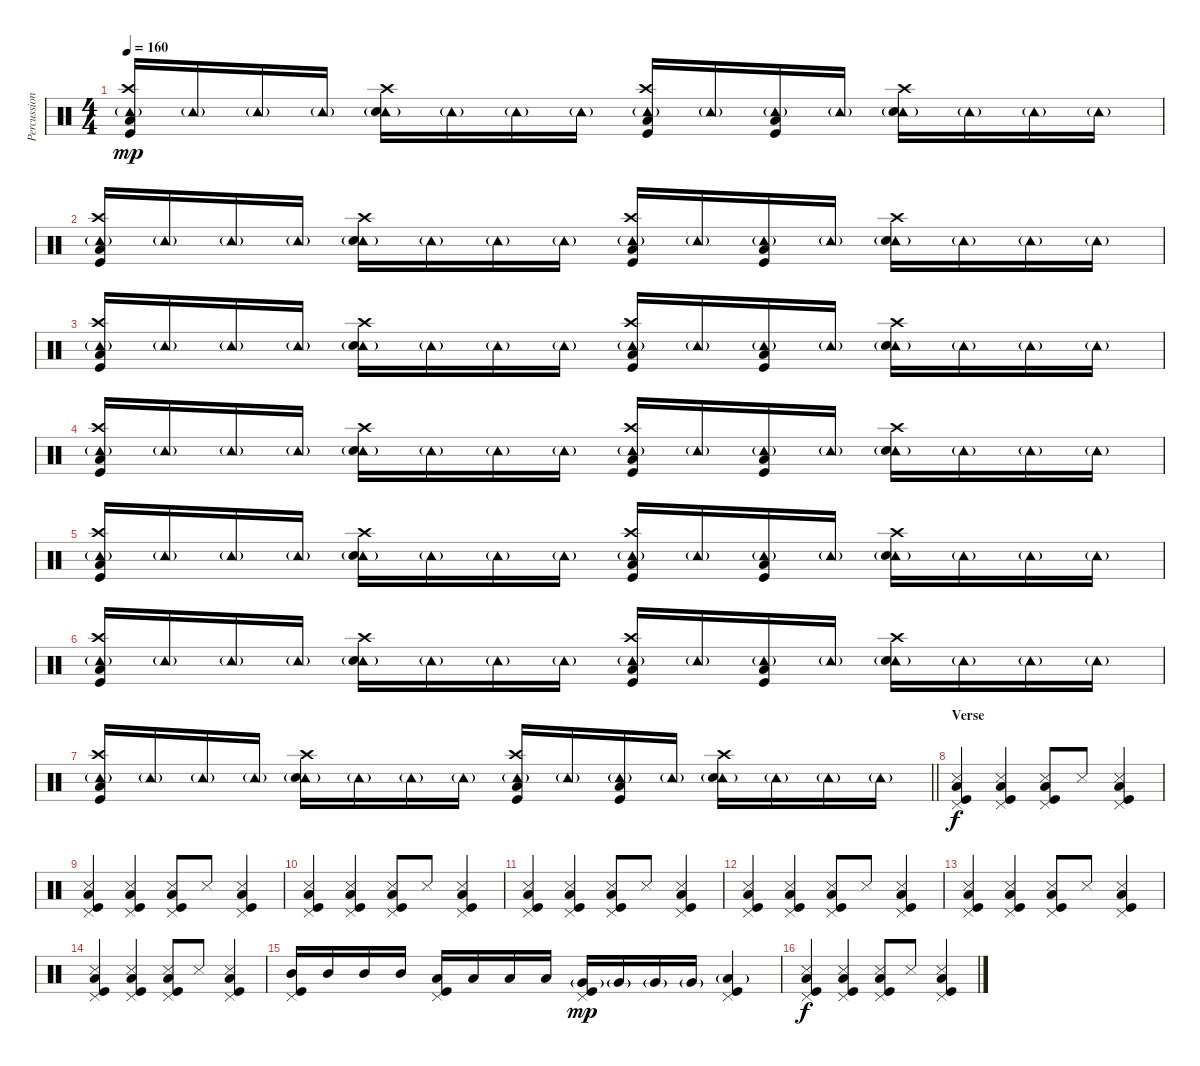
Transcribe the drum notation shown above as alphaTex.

\track ("Percussion" "Percussion") {instrument percussion}
\staff {score}
\articulation defaults
\ts (4 4)
\tempo 160
\clef neutral
\ks c
("Tambourine (hit)"{g} "Crash high (hit)" "Low Floor Tom (hit)" "Kick (hit)").16{dy mp} "Tambourine (hit)"{g}.16 "Tambourine (hit)"{g}.16 "Tambourine (hit)"{g}.16 ("Tambourine (hit)"{g} "Crash high (hit)" "Snare (hit) 2").16 "Tambourine (hit)"{g}.16 "Tambourine (hit)"{g}.16 "Tambourine (hit)"{g}.16 ("Tambourine (hit)"{g} "Crash high (hit)" "Low Floor Tom (hit)" "Kick (hit)").16 "Tambourine (hit)"{g}.16 ("Tambourine (hit)"{g} "Low Floor Tom (hit)" "Kick (hit)").16 "Tambourine (hit)"{g}.16 ("Tambourine (hit)"{g} "Crash high (hit)" "Snare (hit) 2").16 "Tambourine (hit)"{g}.16 "Tambourine (hit)"{g}.16 "Tambourine (hit)"{g}.16 |
("Tambourine (hit)"{g} "Crash high (hit)" "Low Floor Tom (hit)" "Kick (hit)").16 "Tambourine (hit)"{g}.16 "Tambourine (hit)"{g}.16 "Tambourine (hit)"{g}.16 ("Tambourine (hit)"{g} "Crash high (hit)" "Snare (hit) 2").16 "Tambourine (hit)"{g}.16 "Tambourine (hit)"{g}.16 "Tambourine (hit)"{g}.16 ("Tambourine (hit)"{g} "Crash high (hit)" "Low Floor Tom (hit)" "Kick (hit)").16 "Tambourine (hit)"{g}.16 ("Tambourine (hit)"{g} "Low Floor Tom (hit)" "Kick (hit)").16 "Tambourine (hit)"{g}.16 ("Tambourine (hit)"{g} "Crash high (hit)" "Snare (hit) 2").16 "Tambourine (hit)"{g}.16 "Tambourine (hit)"{g}.16 "Tambourine (hit)"{g}.16 |
("Tambourine (hit)"{g} "Crash high (hit)" "Low Floor Tom (hit)" "Kick (hit)").16 "Tambourine (hit)"{g}.16 "Tambourine (hit)"{g}.16 "Tambourine (hit)"{g}.16 ("Tambourine (hit)"{g} "Crash high (hit)" "Snare (hit) 2").16 "Tambourine (hit)"{g}.16 "Tambourine (hit)"{g}.16 "Tambourine (hit)"{g}.16 ("Tambourine (hit)"{g} "Crash high (hit)" "Low Floor Tom (hit)" "Kick (hit)").16 "Tambourine (hit)"{g}.16 ("Tambourine (hit)"{g} "Low Floor Tom (hit)" "Kick (hit)").16 "Tambourine (hit)"{g}.16 ("Tambourine (hit)"{g} "Crash high (hit)" "Snare (hit) 2").16 "Tambourine (hit)"{g}.16 "Tambourine (hit)"{g}.16 "Tambourine (hit)"{g}.16 |
("Tambourine (hit)"{g} "Crash high (hit)" "Low Floor Tom (hit)" "Kick (hit)").16 "Tambourine (hit)"{g}.16 "Tambourine (hit)"{g}.16 "Tambourine (hit)"{g}.16 ("Tambourine (hit)"{g} "Crash high (hit)" "Snare (hit) 2").16 "Tambourine (hit)"{g}.16 "Tambourine (hit)"{g}.16 "Tambourine (hit)"{g}.16 ("Tambourine (hit)"{g} "Crash high (hit)" "Low Floor Tom (hit)" "Kick (hit)").16 "Tambourine (hit)"{g}.16 ("Tambourine (hit)"{g} "Low Floor Tom (hit)" "Kick (hit)").16 "Tambourine (hit)"{g}.16 ("Tambourine (hit)"{g} "Crash high (hit)" "Snare (hit) 2").16 "Tambourine (hit)"{g}.16 "Tambourine (hit)"{g}.16 "Tambourine (hit)"{g}.16 |
("Tambourine (hit)"{g} "Crash high (hit)" "Low Floor Tom (hit)" "Kick (hit)").16 "Tambourine (hit)"{g}.16 "Tambourine (hit)"{g}.16 "Tambourine (hit)"{g}.16 ("Tambourine (hit)"{g} "Crash high (hit)" "Snare (hit) 2").16 "Tambourine (hit)"{g}.16 "Tambourine (hit)"{g}.16 "Tambourine (hit)"{g}.16 ("Tambourine (hit)"{g} "Crash high (hit)" "Low Floor Tom (hit)" "Kick (hit)").16 "Tambourine (hit)"{g}.16 ("Tambourine (hit)"{g} "Low Floor Tom (hit)" "Kick (hit)").16 "Tambourine (hit)"{g}.16 ("Tambourine (hit)"{g} "Crash high (hit)" "Snare (hit) 2").16 "Tambourine (hit)"{g}.16 "Tambourine (hit)"{g}.16 "Tambourine (hit)"{g}.16 |
("Tambourine (hit)"{g} "Crash high (hit)" "Low Floor Tom (hit)" "Kick (hit)").16 "Tambourine (hit)"{g}.16 "Tambourine (hit)"{g}.16 "Tambourine (hit)"{g}.16 ("Tambourine (hit)"{g} "Crash high (hit)" "Snare (hit) 2").16 "Tambourine (hit)"{g}.16 "Tambourine (hit)"{g}.16 "Tambourine (hit)"{g}.16 ("Tambourine (hit)"{g} "Crash high (hit)" "Low Floor Tom (hit)" "Kick (hit)").16 "Tambourine (hit)"{g}.16 ("Tambourine (hit)"{g} "Low Floor Tom (hit)" "Kick (hit)").16 "Tambourine (hit)"{g}.16 ("Tambourine (hit)"{g} "Crash high (hit)" "Snare (hit) 2").16 "Tambourine (hit)"{g}.16 "Tambourine (hit)"{g}.16 "Tambourine (hit)"{g}.16 |
\barLineRight lightlight
("Tambourine (hit)"{g} "Crash high (hit)" "Low Floor Tom (hit)" "Kick (hit)").16 "Tambourine (hit)"{g}.16 "Tambourine (hit)"{g}.16 "Tambourine (hit)"{g}.16 ("Tambourine (hit)"{g} "Crash high (hit)" "Snare (hit) 2").16 "Tambourine (hit)"{g}.16 "Tambourine (hit)"{g}.16 "Tambourine (hit)"{g}.16 ("Tambourine (hit)"{g} "Crash high (hit)" "Low Floor Tom (hit)" "Kick (hit)").16 "Tambourine (hit)"{g}.16 ("Tambourine (hit)"{g} "Low Floor Tom (hit)" "Kick (hit)").16 "Tambourine (hit)"{g}.16 ("Tambourine (hit)"{g} "Crash high (hit)" "Snare (hit) 2").16 "Tambourine (hit)"{g}.16 "Tambourine (hit)"{g}.16 "Tambourine (hit)"{g}.16 |
\section ("" "Verse")
("Snare (side stick) 3" "Low Floor Tom (hit)" "Kick (hit)" "Pedal Hi-Hat (hit)").4{dy f} ("Snare (side stick) 3" "Low Floor Tom (hit)" "Kick (hit)" "Pedal Hi-Hat (hit)").4 ("Snare (side stick) 3" "Low Floor Tom (hit)" "Kick (hit)" "Pedal Hi-Hat (hit)").8 "Snare (side stick) 3".8 ("Snare (side stick) 3" "Low Floor Tom (hit)" "Kick (hit)" "Pedal Hi-Hat (hit)").4 |
("Snare (side stick) 3" "Low Floor Tom (hit)" "Kick (hit)" "Pedal Hi-Hat (hit)").4 ("Snare (side stick) 3" "Low Floor Tom (hit)" "Kick (hit)" "Pedal Hi-Hat (hit)").4 ("Snare (side stick) 3" "Low Floor Tom (hit)" "Kick (hit)" "Pedal Hi-Hat (hit)").8 "Snare (side stick) 3".8 ("Snare (side stick) 3" "Low Floor Tom (hit)" "Kick (hit)" "Pedal Hi-Hat (hit)").4 |
("Snare (side stick) 3" "Low Floor Tom (hit)" "Kick (hit)" "Pedal Hi-Hat (hit)").4 ("Snare (side stick) 3" "Low Floor Tom (hit)" "Kick (hit)" "Pedal Hi-Hat (hit)").4 ("Snare (side stick) 3" "Low Floor Tom (hit)" "Kick (hit)" "Pedal Hi-Hat (hit)").8 "Snare (side stick) 3".8 ("Snare (side stick) 3" "Low Floor Tom (hit)" "Kick (hit)" "Pedal Hi-Hat (hit)").4 |
("Snare (side stick) 3" "Low Floor Tom (hit)" "Kick (hit)" "Pedal Hi-Hat (hit)").4 ("Snare (side stick) 3" "Low Floor Tom (hit)" "Kick (hit)" "Pedal Hi-Hat (hit)").4 ("Snare (side stick) 3" "Low Floor Tom (hit)" "Kick (hit)" "Pedal Hi-Hat (hit)").8 "Snare (side stick) 3".8 ("Snare (side stick) 3" "Low Floor Tom (hit)" "Kick (hit)" "Pedal Hi-Hat (hit)").4 |
("Snare (side stick) 3" "Low Floor Tom (hit)" "Kick (hit)" "Pedal Hi-Hat (hit)").4 ("Snare (side stick) 3" "Low Floor Tom (hit)" "Kick (hit)" "Pedal Hi-Hat (hit)").4 ("Snare (side stick) 3" "Low Floor Tom (hit)" "Kick (hit)" "Pedal Hi-Hat (hit)").8 "Snare (side stick) 3".8 ("Snare (side stick) 3" "Low Floor Tom (hit)" "Kick (hit)" "Pedal Hi-Hat (hit)").4 |
("Snare (side stick) 3" "Low Floor Tom (hit)" "Kick (hit)" "Pedal Hi-Hat (hit)").4 ("Snare (side stick) 3" "Low Floor Tom (hit)" "Kick (hit)" "Pedal Hi-Hat (hit)").4 ("Snare (side stick) 3" "Low Floor Tom (hit)" "Kick (hit)" "Pedal Hi-Hat (hit)").8 "Snare (side stick) 3".8 ("Snare (side stick) 3" "Low Floor Tom (hit)" "Kick (hit)" "Pedal Hi-Hat (hit)").4 |
("Snare (side stick) 3" "Low Floor Tom (hit)" "Kick (hit)" "Pedal Hi-Hat (hit)").4 ("Snare (side stick) 3" "Low Floor Tom (hit)" "Kick (hit)" "Pedal Hi-Hat (hit)").4 ("Snare (side stick) 3" "Low Floor Tom (hit)" "Kick (hit)" "Pedal Hi-Hat (hit)").8 "Snare (side stick) 3".8 ("Snare (side stick) 3" "Low Floor Tom (hit)" "Kick (hit)" "Pedal Hi-Hat (hit)").4 |
("Mid Tom (hit)" "Kick (hit)" "Pedal Hi-Hat (hit)").16 "Mid Tom (hit)".16 "Mid Tom (hit)".16 "Mid Tom (hit)".16 ("Low Tom (hit)" "Kick (hit)" "Pedal Hi-Hat (hit)").16 "Low Tom (hit)".16 "Low Tom (hit)".16 "Low Tom (hit)".16 ("Very Low Tom (hit)"{g} "Kick (hit)" "Pedal Hi-Hat (hit)").16{dy mp} "Very Low Tom (hit)"{g}.16 "Very Low Tom (hit)"{g}.16 "Very Low Tom (hit)"{g}.16 ("Low Floor Tom (hit)"{g} "Kick (hit)" "Pedal Hi-Hat (hit)").4 |
("Snare (side stick) 3" "Low Floor Tom (hit)" "Kick (hit)" "Pedal Hi-Hat (hit)").4{dy f} ("Snare (side stick) 3" "Low Floor Tom (hit)" "Kick (hit)" "Pedal Hi-Hat (hit)").4 ("Snare (side stick) 3" "Low Floor Tom (hit)" "Kick (hit)" "Pedal Hi-Hat (hit)").8 "Snare (side stick) 3".8 ("Snare (side stick) 3" "Low Floor Tom (hit)" "Kick (hit)" "Pedal Hi-Hat (hit)").4
